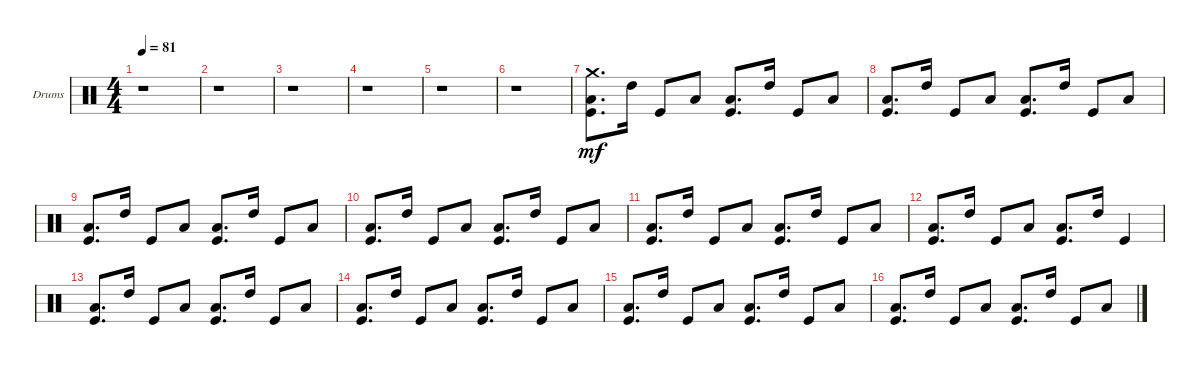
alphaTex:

\bracketExtendMode groupsimilarinstruments
\firstSystemTrackNameOrientation horizontal
\otherSystemsTrackNameOrientation horizontal
\track ("Drumkit" "Drums") {instrument percussion}
\staff {score}
\articulation defaults
\ts (4 4)
\tempo 81
\clef neutral
\ks c
r.1{dy mf} |
r.1 |
r.1 |
r.1 |
r.1 |
r.1 |
("Kick (hit)" "Low Tom (hit)" "Crash medium (hit)").8{d} "High Tom (hit)".16 "Kick (hit)".8 "Low Tom (hit)".8 ("Kick (hit)" "Low Tom (hit)").8{d} "High Tom (hit)".16 "Kick (hit)".8 "Low Tom (hit)".8 |
("Kick (hit)" "Low Tom (hit)").8{d} "High Tom (hit)".16 "Kick (hit)".8 "Low Tom (hit)".8 ("Kick (hit)" "Low Tom (hit)").8{d} "High Tom (hit)".16 "Kick (hit)".8 "Low Tom (hit)".8 |
("Kick (hit)" "Low Tom (hit)").8{d} "High Tom (hit)".16 "Kick (hit)".8 "Low Tom (hit)".8 ("Kick (hit)" "Low Tom (hit)").8{d} "High Tom (hit)".16 "Kick (hit)".8 "Low Tom (hit)".8 |
("Kick (hit)" "Low Tom (hit)").8{d} "High Tom (hit)".16 "Kick (hit)".8 "Low Tom (hit)".8 ("Kick (hit)" "Low Tom (hit)").8{d} "High Tom (hit)".16 "Kick (hit)".8 "Low Tom (hit)".8 |
("Kick (hit)" "Low Tom (hit)").8{d} "High Tom (hit)".16 "Kick (hit)".8 "Low Tom (hit)".8 ("Kick (hit)" "Low Tom (hit)").8{d} "High Tom (hit)".16 "Kick (hit)".8 "Low Tom (hit)".8 |
("Kick (hit)" "Low Tom (hit)").8{d} "High Tom (hit)".16 "Kick (hit)".8 "Low Tom (hit)".8 ("Kick (hit)" "Low Tom (hit)").8{d} "High Tom (hit)".16 "Kick (hit)".4 |
("Kick (hit)" "Low Tom (hit)").8{d} "High Tom (hit)".16 "Kick (hit)".8 "Low Tom (hit)".8 ("Kick (hit)" "Low Tom (hit)").8{d} "High Tom (hit)".16 "Kick (hit)".8 "Low Tom (hit)".8 |
("Kick (hit)" "Low Tom (hit)").8{d} "High Tom (hit)".16 "Kick (hit)".8 "Low Tom (hit)".8 ("Kick (hit)" "Low Tom (hit)").8{d} "High Tom (hit)".16 "Kick (hit)".8 "Low Tom (hit)".8 |
("Kick (hit)" "Low Tom (hit)").8{d} "High Tom (hit)".16 "Kick (hit)".8 "Low Tom (hit)".8 ("Kick (hit)" "Low Tom (hit)").8{d} "High Tom (hit)".16 "Kick (hit)".8 "Low Tom (hit)".8 |
("Kick (hit)" "Low Tom (hit)").8{d} "High Tom (hit)".16 "Kick (hit)".8 "Low Tom (hit)".8 ("Kick (hit)" "Low Tom (hit)").8{d} "High Tom (hit)".16 "Kick (hit)".8 "Low Tom (hit)".8
